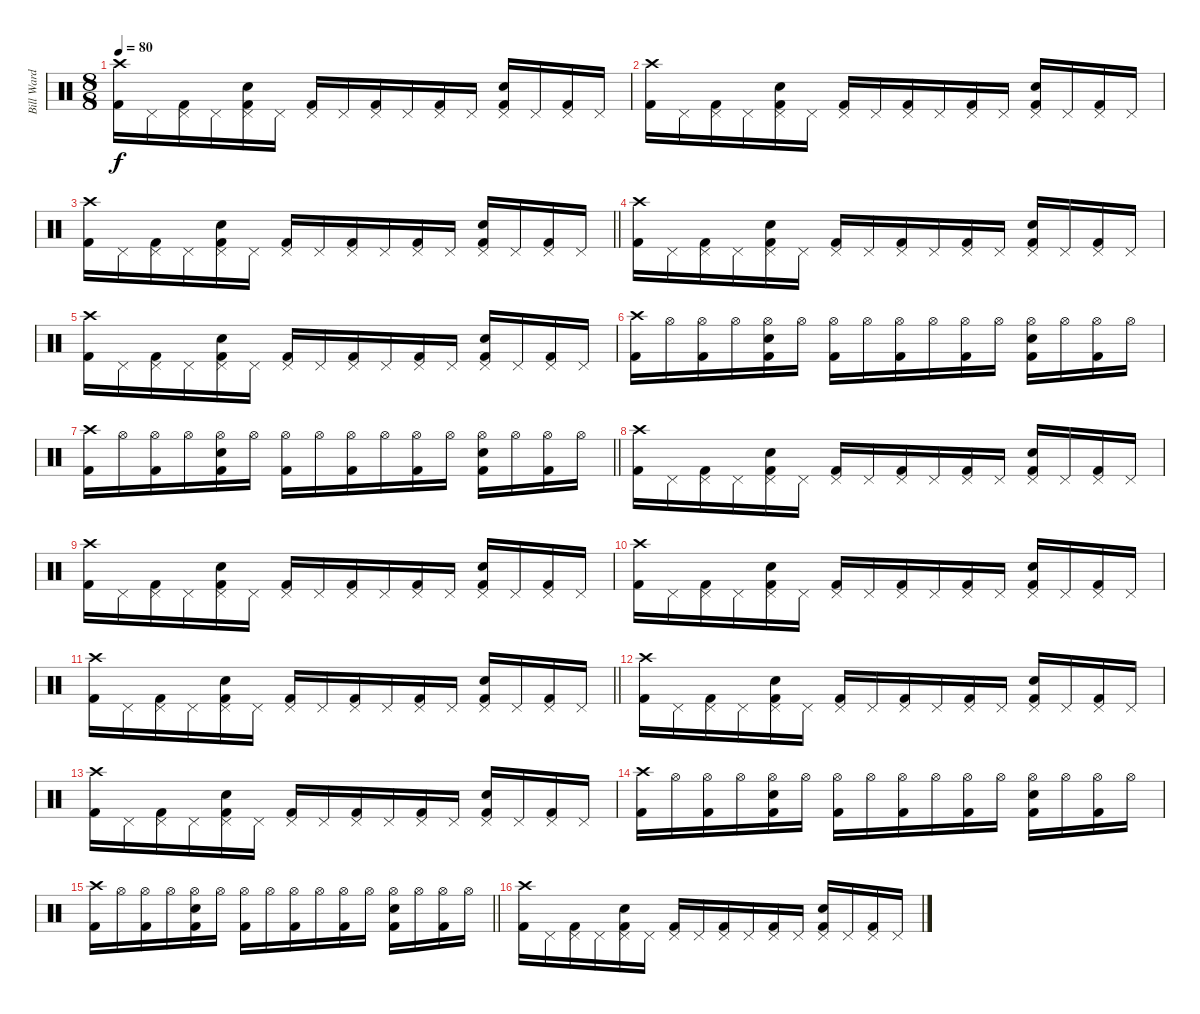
\track ("Bill Ward (Drums)" "Bill Ward ") {instrument percussion}
\staff {score}
\articulation defaults
\ts (8 8)
\tempo 80
\clef neutral
\ks c
("Kick (hit) 2" "Crash high (hit)").16{dy f} "Pedal Hi-Hat (hit)".16 ("Kick (hit) 2" "Pedal Hi-Hat (hit)").16 "Pedal Hi-Hat (hit)".16 ("Kick (hit) 2" "Snare (hit) 2" "Pedal Hi-Hat (hit)").16 "Pedal Hi-Hat (hit)".16 ("Kick (hit) 2" "Pedal Hi-Hat (hit)").16 "Pedal Hi-Hat (hit)".16 ("Kick (hit) 2" "Pedal Hi-Hat (hit)").16 "Pedal Hi-Hat (hit)".16 ("Kick (hit) 2" "Pedal Hi-Hat (hit)").16 "Pedal Hi-Hat (hit)".16 ("Kick (hit) 2" "Snare (hit) 2" "Pedal Hi-Hat (hit)").16 "Pedal Hi-Hat (hit)".16 ("Kick (hit) 2" "Pedal Hi-Hat (hit)").16 "Pedal Hi-Hat (hit)".16 |
("Kick (hit) 2" "Crash high (hit)").16 "Pedal Hi-Hat (hit)".16 ("Kick (hit) 2" "Pedal Hi-Hat (hit)").16 "Pedal Hi-Hat (hit)".16 ("Kick (hit) 2" "Snare (hit) 2" "Pedal Hi-Hat (hit)").16 "Pedal Hi-Hat (hit)".16 ("Kick (hit) 2" "Pedal Hi-Hat (hit)").16 "Pedal Hi-Hat (hit)".16 ("Kick (hit) 2" "Pedal Hi-Hat (hit)").16 "Pedal Hi-Hat (hit)".16 ("Kick (hit) 2" "Pedal Hi-Hat (hit)").16 "Pedal Hi-Hat (hit)".16 ("Kick (hit) 2" "Snare (hit) 2" "Pedal Hi-Hat (hit)").16 "Pedal Hi-Hat (hit)".16 ("Kick (hit) 2" "Pedal Hi-Hat (hit)").16 "Pedal Hi-Hat (hit)".16 |
\barLineRight lightlight
("Kick (hit) 2" "Crash high (hit)").16 "Pedal Hi-Hat (hit)".16 ("Kick (hit) 2" "Pedal Hi-Hat (hit)").16 "Pedal Hi-Hat (hit)".16 ("Kick (hit) 2" "Snare (hit) 2" "Pedal Hi-Hat (hit)").16 "Pedal Hi-Hat (hit)".16 ("Kick (hit) 2" "Pedal Hi-Hat (hit)").16 "Pedal Hi-Hat (hit)".16 ("Kick (hit) 2" "Pedal Hi-Hat (hit)").16 "Pedal Hi-Hat (hit)".16 ("Kick (hit) 2" "Pedal Hi-Hat (hit)").16 "Pedal Hi-Hat (hit)".16 ("Kick (hit) 2" "Snare (hit) 2" "Pedal Hi-Hat (hit)").16 "Pedal Hi-Hat (hit)".16 ("Kick (hit) 2" "Pedal Hi-Hat (hit)").16 "Pedal Hi-Hat (hit)".16 |
("Kick (hit) 2" "Crash high (hit)").16 "Pedal Hi-Hat (hit)".16 ("Kick (hit) 2" "Pedal Hi-Hat (hit)").16 "Pedal Hi-Hat (hit)".16 ("Kick (hit) 2" "Snare (hit) 2" "Pedal Hi-Hat (hit)").16 "Pedal Hi-Hat (hit)".16 ("Kick (hit) 2" "Pedal Hi-Hat (hit)").16 "Pedal Hi-Hat (hit)".16 ("Kick (hit) 2" "Pedal Hi-Hat (hit)").16 "Pedal Hi-Hat (hit)".16 ("Kick (hit) 2" "Pedal Hi-Hat (hit)").16 "Pedal Hi-Hat (hit)".16 ("Kick (hit) 2" "Snare (hit) 2" "Pedal Hi-Hat (hit)").16 "Pedal Hi-Hat (hit)".16 ("Kick (hit) 2" "Pedal Hi-Hat (hit)").16 "Pedal Hi-Hat (hit)".16 |
("Kick (hit) 2" "Crash high (hit)").16 "Pedal Hi-Hat (hit)".16 ("Kick (hit) 2" "Pedal Hi-Hat (hit)").16 "Pedal Hi-Hat (hit)".16 ("Kick (hit) 2" "Snare (hit) 2" "Pedal Hi-Hat (hit)").16 "Pedal Hi-Hat (hit)".16 ("Kick (hit) 2" "Pedal Hi-Hat (hit)").16 "Pedal Hi-Hat (hit)".16 ("Kick (hit) 2" "Pedal Hi-Hat (hit)").16 "Pedal Hi-Hat (hit)".16 ("Kick (hit) 2" "Pedal Hi-Hat (hit)").16 "Pedal Hi-Hat (hit)".16 ("Kick (hit) 2" "Snare (hit) 2" "Pedal Hi-Hat (hit)").16 "Pedal Hi-Hat (hit)".16 ("Kick (hit) 2" "Pedal Hi-Hat (hit)").16 "Pedal Hi-Hat (hit)".16 |
("Kick (hit) 2" "Crash high (hit)").16 "Hi-Hat (open)".16 ("Kick (hit) 2" "Hi-Hat (open)").16 "Hi-Hat (open)".16 ("Kick (hit) 2" "Snare (hit) 2" "Hi-Hat (open)").16 "Hi-Hat (open)".16 ("Kick (hit) 2" "Hi-Hat (open)").16 "Hi-Hat (open)".16 ("Kick (hit) 2" "Hi-Hat (open)").16 "Hi-Hat (open)".16 ("Kick (hit) 2" "Hi-Hat (open)").16 "Hi-Hat (open)".16 ("Kick (hit) 2" "Snare (hit) 2" "Hi-Hat (open)").16 "Hi-Hat (open)".16 ("Kick (hit) 2" "Hi-Hat (open)").16 "Hi-Hat (open)".16 |
\barLineRight lightlight
("Kick (hit) 2" "Crash high (hit)").16 "Hi-Hat (open)".16 ("Kick (hit) 2" "Hi-Hat (open)").16 "Hi-Hat (open)".16 ("Kick (hit) 2" "Snare (hit) 2" "Hi-Hat (open)").16 "Hi-Hat (open)".16 ("Kick (hit) 2" "Hi-Hat (open)").16 "Hi-Hat (open)".16 ("Kick (hit) 2" "Hi-Hat (open)").16 "Hi-Hat (open)".16 ("Kick (hit) 2" "Hi-Hat (open)").16 "Hi-Hat (open)".16 ("Kick (hit) 2" "Snare (hit) 2" "Hi-Hat (open)").16 "Hi-Hat (open)".16 ("Kick (hit) 2" "Hi-Hat (open)").16 "Hi-Hat (open)".16 |
("Kick (hit) 2" "Crash high (hit)").16 "Pedal Hi-Hat (hit)".16 ("Kick (hit) 2" "Pedal Hi-Hat (hit)").16 "Pedal Hi-Hat (hit)".16 ("Kick (hit) 2" "Snare (hit) 2" "Pedal Hi-Hat (hit)").16 "Pedal Hi-Hat (hit)".16 ("Kick (hit) 2" "Pedal Hi-Hat (hit)").16 "Pedal Hi-Hat (hit)".16 ("Kick (hit) 2" "Pedal Hi-Hat (hit)").16 "Pedal Hi-Hat (hit)".16 ("Kick (hit) 2" "Pedal Hi-Hat (hit)").16 "Pedal Hi-Hat (hit)".16 ("Kick (hit) 2" "Snare (hit) 2" "Pedal Hi-Hat (hit)").16 "Pedal Hi-Hat (hit)".16 ("Kick (hit) 2" "Pedal Hi-Hat (hit)").16 "Pedal Hi-Hat (hit)".16 |
("Kick (hit) 2" "Crash high (hit)").16 "Pedal Hi-Hat (hit)".16 ("Kick (hit) 2" "Pedal Hi-Hat (hit)").16 "Pedal Hi-Hat (hit)".16 ("Kick (hit) 2" "Snare (hit) 2" "Pedal Hi-Hat (hit)").16 "Pedal Hi-Hat (hit)".16 ("Kick (hit) 2" "Pedal Hi-Hat (hit)").16 "Pedal Hi-Hat (hit)".16 ("Kick (hit) 2" "Pedal Hi-Hat (hit)").16 "Pedal Hi-Hat (hit)".16 ("Kick (hit) 2" "Pedal Hi-Hat (hit)").16 "Pedal Hi-Hat (hit)".16 ("Kick (hit) 2" "Snare (hit) 2" "Pedal Hi-Hat (hit)").16 "Pedal Hi-Hat (hit)".16 ("Kick (hit) 2" "Pedal Hi-Hat (hit)").16 "Pedal Hi-Hat (hit)".16 |
("Kick (hit) 2" "Crash high (hit)").16 "Pedal Hi-Hat (hit)".16 ("Kick (hit) 2" "Pedal Hi-Hat (hit)").16 "Pedal Hi-Hat (hit)".16 ("Kick (hit) 2" "Snare (hit) 2" "Pedal Hi-Hat (hit)").16 "Pedal Hi-Hat (hit)".16 ("Kick (hit) 2" "Pedal Hi-Hat (hit)").16 "Pedal Hi-Hat (hit)".16 ("Kick (hit) 2" "Pedal Hi-Hat (hit)").16 "Pedal Hi-Hat (hit)".16 ("Kick (hit) 2" "Pedal Hi-Hat (hit)").16 "Pedal Hi-Hat (hit)".16 ("Kick (hit) 2" "Snare (hit) 2" "Pedal Hi-Hat (hit)").16 "Pedal Hi-Hat (hit)".16 ("Kick (hit) 2" "Pedal Hi-Hat (hit)").16 "Pedal Hi-Hat (hit)".16 |
\barLineRight lightlight
("Kick (hit) 2" "Crash high (hit)").16 "Pedal Hi-Hat (hit)".16 ("Kick (hit) 2" "Pedal Hi-Hat (hit)").16 "Pedal Hi-Hat (hit)".16 ("Kick (hit) 2" "Snare (hit) 2" "Pedal Hi-Hat (hit)").16 "Pedal Hi-Hat (hit)".16 ("Kick (hit) 2" "Pedal Hi-Hat (hit)").16 "Pedal Hi-Hat (hit)".16 ("Kick (hit) 2" "Pedal Hi-Hat (hit)").16 "Pedal Hi-Hat (hit)".16 ("Kick (hit) 2" "Pedal Hi-Hat (hit)").16 "Pedal Hi-Hat (hit)".16 ("Kick (hit) 2" "Snare (hit) 2" "Pedal Hi-Hat (hit)").16 "Pedal Hi-Hat (hit)".16 ("Kick (hit) 2" "Pedal Hi-Hat (hit)").16 "Pedal Hi-Hat (hit)".16 |
("Kick (hit) 2" "Crash high (hit)").16 "Pedal Hi-Hat (hit)".16 ("Kick (hit) 2" "Pedal Hi-Hat (hit)").16 "Pedal Hi-Hat (hit)".16 ("Kick (hit) 2" "Snare (hit) 2" "Pedal Hi-Hat (hit)").16 "Pedal Hi-Hat (hit)".16 ("Kick (hit) 2" "Pedal Hi-Hat (hit)").16 "Pedal Hi-Hat (hit)".16 ("Kick (hit) 2" "Pedal Hi-Hat (hit)").16 "Pedal Hi-Hat (hit)".16 ("Kick (hit) 2" "Pedal Hi-Hat (hit)").16 "Pedal Hi-Hat (hit)".16 ("Kick (hit) 2" "Snare (hit) 2" "Pedal Hi-Hat (hit)").16 "Pedal Hi-Hat (hit)".16 ("Kick (hit) 2" "Pedal Hi-Hat (hit)").16 "Pedal Hi-Hat (hit)".16 |
("Kick (hit) 2" "Crash high (hit)").16 "Pedal Hi-Hat (hit)".16 ("Kick (hit) 2" "Pedal Hi-Hat (hit)").16 "Pedal Hi-Hat (hit)".16 ("Kick (hit) 2" "Snare (hit) 2" "Pedal Hi-Hat (hit)").16 "Pedal Hi-Hat (hit)".16 ("Kick (hit) 2" "Pedal Hi-Hat (hit)").16 "Pedal Hi-Hat (hit)".16 ("Kick (hit) 2" "Pedal Hi-Hat (hit)").16 "Pedal Hi-Hat (hit)".16 ("Kick (hit) 2" "Pedal Hi-Hat (hit)").16 "Pedal Hi-Hat (hit)".16 ("Kick (hit) 2" "Snare (hit) 2" "Pedal Hi-Hat (hit)").16 "Pedal Hi-Hat (hit)".16 ("Kick (hit) 2" "Pedal Hi-Hat (hit)").16 "Pedal Hi-Hat (hit)".16 |
("Kick (hit) 2" "Crash high (hit)").16 "Hi-Hat (open)".16 ("Kick (hit) 2" "Hi-Hat (open)").16 "Hi-Hat (open)".16 ("Kick (hit) 2" "Snare (hit) 2" "Hi-Hat (open)").16 "Hi-Hat (open)".16 ("Kick (hit) 2" "Hi-Hat (open)").16 "Hi-Hat (open)".16 ("Kick (hit) 2" "Hi-Hat (open)").16 "Hi-Hat (open)".16 ("Kick (hit) 2" "Hi-Hat (open)").16 "Hi-Hat (open)".16 ("Kick (hit) 2" "Snare (hit) 2" "Hi-Hat (open)").16 "Hi-Hat (open)".16 ("Kick (hit) 2" "Hi-Hat (open)").16 "Hi-Hat (open)".16 |
\barLineRight lightlight
("Kick (hit) 2" "Crash high (hit)").16 "Hi-Hat (open)".16 ("Kick (hit) 2" "Hi-Hat (open)").16 "Hi-Hat (open)".16 ("Kick (hit) 2" "Snare (hit) 2" "Hi-Hat (open)").16 "Hi-Hat (open)".16 ("Kick (hit) 2" "Hi-Hat (open)").16 "Hi-Hat (open)".16 ("Kick (hit) 2" "Hi-Hat (open)").16 "Hi-Hat (open)".16 ("Kick (hit) 2" "Hi-Hat (open)").16 "Hi-Hat (open)".16 ("Kick (hit) 2" "Snare (hit) 2" "Hi-Hat (open)").16 "Hi-Hat (open)".16 ("Kick (hit) 2" "Hi-Hat (open)").16 "Hi-Hat (open)".16 |
("Kick (hit) 2" "Crash high (hit)").16 "Pedal Hi-Hat (hit)".16 ("Kick (hit) 2" "Pedal Hi-Hat (hit)").16 "Pedal Hi-Hat (hit)".16 ("Kick (hit) 2" "Snare (hit) 2" "Pedal Hi-Hat (hit)").16 "Pedal Hi-Hat (hit)".16 ("Kick (hit) 2" "Pedal Hi-Hat (hit)").16 "Pedal Hi-Hat (hit)".16 ("Kick (hit) 2" "Pedal Hi-Hat (hit)").16 "Pedal Hi-Hat (hit)".16 ("Kick (hit) 2" "Pedal Hi-Hat (hit)").16 "Pedal Hi-Hat (hit)".16 ("Kick (hit) 2" "Snare (hit) 2" "Pedal Hi-Hat (hit)").16 "Pedal Hi-Hat (hit)".16 ("Kick (hit) 2" "Pedal Hi-Hat (hit)").16 "Pedal Hi-Hat (hit)".16
